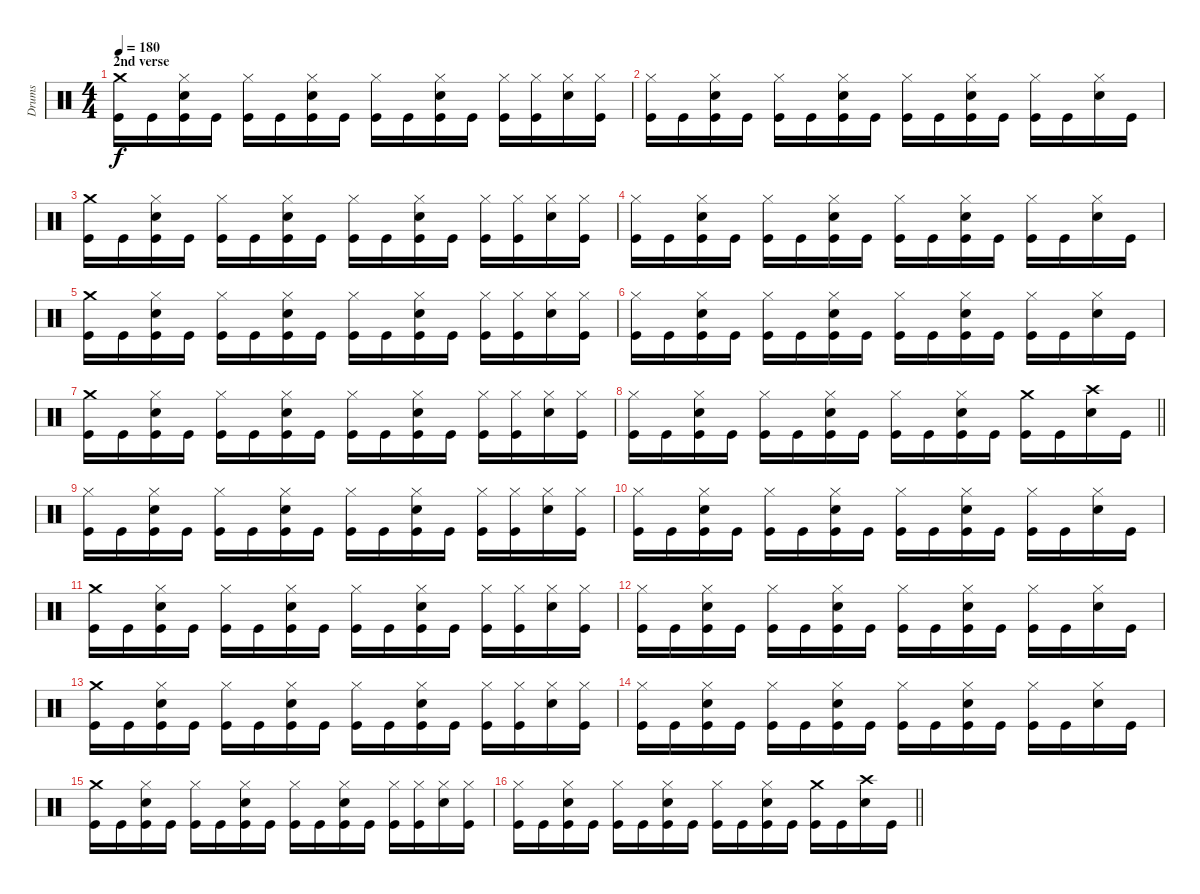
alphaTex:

\track ("Drums" "Drums") {instrument percussion}
\staff {score}
\articulation defaults
\ts (4 4)
\section ("" "2nd verse")
\tempo 180
\clef neutral
\ks c
("Crash medium (hit)" "Kick (hit)").16{dy f} "Kick (hit)".16 ("Hi-Hat (closed)" "Snare (hit) 2" "Kick (hit)").16 "Kick (hit)".16 ("Hi-Hat (closed)" "Kick (hit)").16 "Kick (hit)".16 ("Hi-Hat (closed)" "Snare (hit) 2" "Kick (hit)").16 "Kick (hit)".16 ("Hi-Hat (closed)" "Kick (hit)").16 "Kick (hit)".16 ("Hi-Hat (closed)" "Snare (hit) 2" "Kick (hit)").16 "Kick (hit)".16 ("Hi-Hat (closed)" "Kick (hit)").16 ("Hi-Hat (closed)" "Kick (hit)").16 ("Hi-Hat (closed)" "Snare (hit) 2").16 ("Hi-Hat (closed)" "Kick (hit)").16 |
("Hi-Hat (closed)" "Kick (hit)").16 "Kick (hit)".16 ("Hi-Hat (closed)" "Snare (hit) 2" "Kick (hit)").16 "Kick (hit)".16 ("Hi-Hat (closed)" "Kick (hit)").16 "Kick (hit)".16 ("Hi-Hat (closed)" "Snare (hit) 2" "Kick (hit)").16 "Kick (hit)".16 ("Hi-Hat (closed)" "Kick (hit)").16 "Kick (hit)".16 ("Hi-Hat (closed)" "Snare (hit) 2" "Kick (hit)").16 "Kick (hit)".16 ("Hi-Hat (closed)" "Kick (hit)").16 "Kick (hit)".16 ("Hi-Hat (closed)" "Snare (hit) 2").16 "Kick (hit)".16 |
("Crash medium (hit)" "Kick (hit)").16 "Kick (hit)".16 ("Hi-Hat (closed)" "Snare (hit) 2" "Kick (hit)").16 "Kick (hit)".16 ("Hi-Hat (closed)" "Kick (hit)").16 "Kick (hit)".16 ("Hi-Hat (closed)" "Snare (hit) 2" "Kick (hit)").16 "Kick (hit)".16 ("Hi-Hat (closed)" "Kick (hit)").16 "Kick (hit)".16 ("Hi-Hat (closed)" "Snare (hit) 2" "Kick (hit)").16 "Kick (hit)".16 ("Hi-Hat (closed)" "Kick (hit)").16 ("Hi-Hat (closed)" "Kick (hit)").16 ("Hi-Hat (closed)" "Snare (hit) 2").16 ("Hi-Hat (closed)" "Kick (hit)").16 |
("Hi-Hat (closed)" "Kick (hit)").16 "Kick (hit)".16 ("Hi-Hat (closed)" "Snare (hit) 2" "Kick (hit)").16 "Kick (hit)".16 ("Hi-Hat (closed)" "Kick (hit)").16 "Kick (hit)".16 ("Hi-Hat (closed)" "Snare (hit) 2" "Kick (hit)").16 "Kick (hit)".16 ("Hi-Hat (closed)" "Kick (hit)").16 "Kick (hit)".16 ("Hi-Hat (closed)" "Snare (hit) 2" "Kick (hit)").16 "Kick (hit)".16 ("Hi-Hat (closed)" "Kick (hit)").16 "Kick (hit)".16 ("Hi-Hat (closed)" "Snare (hit) 2").16 "Kick (hit)".16 |
("Crash medium (hit)" "Kick (hit)").16 "Kick (hit)".16 ("Hi-Hat (closed)" "Snare (hit) 2" "Kick (hit)").16 "Kick (hit)".16 ("Hi-Hat (closed)" "Kick (hit)").16 "Kick (hit)".16 ("Hi-Hat (closed)" "Snare (hit) 2" "Kick (hit)").16 "Kick (hit)".16 ("Hi-Hat (closed)" "Kick (hit)").16 "Kick (hit)".16 ("Hi-Hat (closed)" "Snare (hit) 2" "Kick (hit)").16 "Kick (hit)".16 ("Hi-Hat (closed)" "Kick (hit)").16 ("Hi-Hat (closed)" "Kick (hit)").16 ("Hi-Hat (closed)" "Snare (hit) 2").16 ("Hi-Hat (closed)" "Kick (hit)").16 |
("Hi-Hat (closed)" "Kick (hit)").16 "Kick (hit)".16 ("Hi-Hat (closed)" "Snare (hit) 2" "Kick (hit)").16 "Kick (hit)".16 ("Hi-Hat (closed)" "Kick (hit)").16 "Kick (hit)".16 ("Hi-Hat (closed)" "Snare (hit) 2" "Kick (hit)").16 "Kick (hit)".16 ("Hi-Hat (closed)" "Kick (hit)").16 "Kick (hit)".16 ("Hi-Hat (closed)" "Snare (hit) 2" "Kick (hit)").16 "Kick (hit)".16 ("Hi-Hat (closed)" "Kick (hit)").16 "Kick (hit)".16 ("Hi-Hat (closed)" "Snare (hit) 2").16 "Kick (hit)".16 |
("Crash medium (hit)" "Kick (hit)").16 "Kick (hit)".16 ("Hi-Hat (closed)" "Snare (hit) 2" "Kick (hit)").16 "Kick (hit)".16 ("Hi-Hat (closed)" "Kick (hit)").16 "Kick (hit)".16 ("Hi-Hat (closed)" "Snare (hit) 2" "Kick (hit)").16 "Kick (hit)".16 ("Hi-Hat (closed)" "Kick (hit)").16 "Kick (hit)".16 ("Hi-Hat (closed)" "Snare (hit) 2" "Kick (hit)").16 "Kick (hit)".16 ("Hi-Hat (closed)" "Kick (hit)").16 ("Hi-Hat (closed)" "Kick (hit)").16 ("Hi-Hat (closed)" "Snare (hit) 2").16 ("Hi-Hat (closed)" "Kick (hit)").16 |
\barLineRight lightlight
("Hi-Hat (closed)" "Kick (hit)").16 "Kick (hit)".16 ("Hi-Hat (closed)" "Snare (hit) 2" "Kick (hit)").16 "Kick (hit)".16 ("Hi-Hat (closed)" "Kick (hit)").16 "Kick (hit)".16 ("Hi-Hat (closed)" "Snare (hit) 2" "Kick (hit)").16 "Kick (hit)".16 ("Hi-Hat (closed)" "Kick (hit)").16 "Kick (hit)".16 ("Hi-Hat (closed)" "Snare (hit) 2" "Kick (hit)").16 "Kick (hit)".16 ("Crash medium (hit)" "Kick (hit)").16 "Kick (hit)".16 ("Crash high (hit)" "Snare (hit) 2").16 "Kick (hit)".16 |
("Hi-Hat (closed)" "Kick (hit)").16 "Kick (hit)".16 ("Hi-Hat (closed)" "Snare (hit) 2" "Kick (hit)").16 "Kick (hit)".16 ("Hi-Hat (closed)" "Kick (hit)").16 "Kick (hit)".16 ("Hi-Hat (closed)" "Snare (hit) 2" "Kick (hit)").16 "Kick (hit)".16 ("Hi-Hat (closed)" "Kick (hit)").16 "Kick (hit)".16 ("Hi-Hat (closed)" "Snare (hit) 2" "Kick (hit)").16 "Kick (hit)".16 ("Hi-Hat (closed)" "Kick (hit)").16 ("Hi-Hat (closed)" "Kick (hit)").16 ("Hi-Hat (closed)" "Snare (hit) 2").16 ("Hi-Hat (closed)" "Kick (hit)").16 |
("Hi-Hat (closed)" "Kick (hit)").16 "Kick (hit)".16 ("Hi-Hat (closed)" "Snare (hit) 2" "Kick (hit)").16 "Kick (hit)".16 ("Hi-Hat (closed)" "Kick (hit)").16 "Kick (hit)".16 ("Hi-Hat (closed)" "Snare (hit) 2" "Kick (hit)").16 "Kick (hit)".16 ("Hi-Hat (closed)" "Kick (hit)").16 "Kick (hit)".16 ("Hi-Hat (closed)" "Snare (hit) 2" "Kick (hit)").16 "Kick (hit)".16 ("Hi-Hat (closed)" "Kick (hit)").16 "Kick (hit)".16 ("Hi-Hat (closed)" "Snare (hit) 2").16 "Kick (hit)".16 |
("Crash medium (hit)" "Kick (hit)").16 "Kick (hit)".16 ("Hi-Hat (closed)" "Snare (hit) 2" "Kick (hit)").16 "Kick (hit)".16 ("Hi-Hat (closed)" "Kick (hit)").16 "Kick (hit)".16 ("Hi-Hat (closed)" "Snare (hit) 2" "Kick (hit)").16 "Kick (hit)".16 ("Hi-Hat (closed)" "Kick (hit)").16 "Kick (hit)".16 ("Hi-Hat (closed)" "Snare (hit) 2" "Kick (hit)").16 "Kick (hit)".16 ("Hi-Hat (closed)" "Kick (hit)").16 ("Hi-Hat (closed)" "Kick (hit)").16 ("Hi-Hat (closed)" "Snare (hit) 2").16 ("Hi-Hat (closed)" "Kick (hit)").16 |
("Hi-Hat (closed)" "Kick (hit)").16 "Kick (hit)".16 ("Hi-Hat (closed)" "Snare (hit) 2" "Kick (hit)").16 "Kick (hit)".16 ("Hi-Hat (closed)" "Kick (hit)").16 "Kick (hit)".16 ("Hi-Hat (closed)" "Snare (hit) 2" "Kick (hit)").16 "Kick (hit)".16 ("Hi-Hat (closed)" "Kick (hit)").16 "Kick (hit)".16 ("Hi-Hat (closed)" "Snare (hit) 2" "Kick (hit)").16 "Kick (hit)".16 ("Hi-Hat (closed)" "Kick (hit)").16 "Kick (hit)".16 ("Hi-Hat (closed)" "Snare (hit) 2").16 "Kick (hit)".16 |
("Crash medium (hit)" "Kick (hit)").16 "Kick (hit)".16 ("Hi-Hat (closed)" "Snare (hit) 2" "Kick (hit)").16 "Kick (hit)".16 ("Hi-Hat (closed)" "Kick (hit)").16 "Kick (hit)".16 ("Hi-Hat (closed)" "Snare (hit) 2" "Kick (hit)").16 "Kick (hit)".16 ("Hi-Hat (closed)" "Kick (hit)").16 "Kick (hit)".16 ("Hi-Hat (closed)" "Snare (hit) 2" "Kick (hit)").16 "Kick (hit)".16 ("Hi-Hat (closed)" "Kick (hit)").16 ("Hi-Hat (closed)" "Kick (hit)").16 ("Hi-Hat (closed)" "Snare (hit) 2").16 ("Hi-Hat (closed)" "Kick (hit)").16 |
("Hi-Hat (closed)" "Kick (hit)").16 "Kick (hit)".16 ("Hi-Hat (closed)" "Snare (hit) 2" "Kick (hit)").16 "Kick (hit)".16 ("Hi-Hat (closed)" "Kick (hit)").16 "Kick (hit)".16 ("Hi-Hat (closed)" "Snare (hit) 2" "Kick (hit)").16 "Kick (hit)".16 ("Hi-Hat (closed)" "Kick (hit)").16 "Kick (hit)".16 ("Hi-Hat (closed)" "Snare (hit) 2" "Kick (hit)").16 "Kick (hit)".16 ("Hi-Hat (closed)" "Kick (hit)").16 "Kick (hit)".16 ("Hi-Hat (closed)" "Snare (hit) 2").16 "Kick (hit)".16 |
("Crash medium (hit)" "Kick (hit)").16 "Kick (hit)".16 ("Hi-Hat (closed)" "Snare (hit) 2" "Kick (hit)").16 "Kick (hit)".16 ("Hi-Hat (closed)" "Kick (hit)").16 "Kick (hit)".16 ("Hi-Hat (closed)" "Snare (hit) 2" "Kick (hit)").16 "Kick (hit)".16 ("Hi-Hat (closed)" "Kick (hit)").16 "Kick (hit)".16 ("Hi-Hat (closed)" "Snare (hit) 2" "Kick (hit)").16 "Kick (hit)".16 ("Hi-Hat (closed)" "Kick (hit)").16 ("Hi-Hat (closed)" "Kick (hit)").16 ("Hi-Hat (closed)" "Snare (hit) 2").16 ("Hi-Hat (closed)" "Kick (hit)").16 |
\barLineRight lightlight
("Hi-Hat (closed)" "Kick (hit)").16 "Kick (hit)".16 ("Hi-Hat (closed)" "Snare (hit) 2" "Kick (hit)").16 "Kick (hit)".16 ("Hi-Hat (closed)" "Kick (hit)").16 "Kick (hit)".16 ("Hi-Hat (closed)" "Snare (hit) 2" "Kick (hit)").16 "Kick (hit)".16 ("Hi-Hat (closed)" "Kick (hit)").16 "Kick (hit)".16 ("Hi-Hat (closed)" "Snare (hit) 2" "Kick (hit)").16 "Kick (hit)".16 ("Crash medium (hit)" "Kick (hit)").16 "Kick (hit)".16 ("Crash high (hit)" "Snare (hit) 2").16 "Kick (hit)".16
